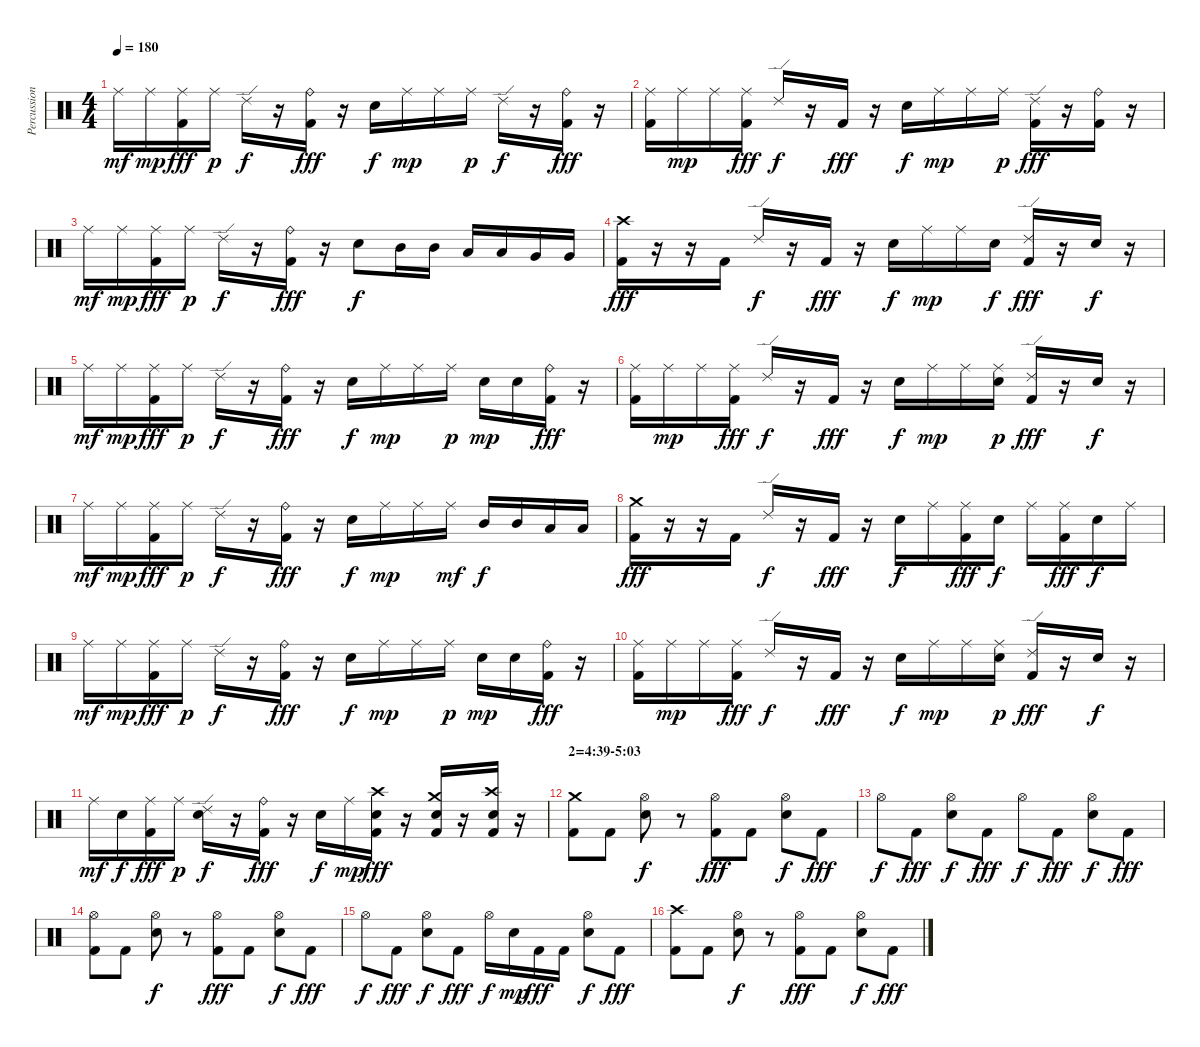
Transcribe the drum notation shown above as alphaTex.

\track ("Percussion" "Percussion") {instrument percussion}
\staff {score}
\articulation defaults
\ts (4 4)
\tempo 180
\clef neutral
\ks c "Ride (middle)".16{dy mf} "Ride (middle)".16{dy mp}
("Ride (middle)" "Kick (hit) 2").16{dy fff} "Ride (middle)".16{dy p} "Ride (edge) 2".16{dy f} r.16 ("Ride (bell)" "Kick (hit) 2").16{dy fff} r.16 "Electric Snare (hit)".16{dy f} "Ride (middle)".16{dy mp} "Ride (middle)".16 "Ride (middle)".16{dy p} "Ride (edge) 2".16{dy f} r.16 ("Ride (bell)" "Kick (hit) 2").16{dy fff} r.16 |
("Ride (middle)" "Kick (hit) 2").16 "Ride (middle)".16{dy mp} "Ride (middle)".16 ("Ride (middle)" "Kick (hit) 2").16{dy fff} "Ride (edge) 2".16{dy f} r.16 "Kick (hit) 2".16{dy fff} r.16 "Electric Snare (hit)".16{dy f} "Ride (middle)".16{dy mp} "Ride (middle)".16 "Ride (middle)".16{dy p} ("Ride (edge) 2" "Kick (hit) 2").16{dy fff} r.16 ("Ride (bell)" "Kick (hit) 2").16 r.16 |
"Ride (middle)".16{dy mf} "Ride (middle)".16{dy mp} ("Ride (middle)" "Kick (hit) 2").16{dy fff} "Ride (middle)".16{dy p} "Ride (edge) 2".16{dy f} r.16 ("Ride (bell)" "Kick (hit) 2").16{dy fff} r.16 "Electric Snare (hit)".8{dy f} "Mid Tom (hit)".16 "Mid Tom (hit)".16 "Low Tom (hit)".16 "Low Tom (hit)".16 "Very Low Tom (hit)".16 "Very Low Tom (hit)".16 |
("Crash high (hit)" "Kick (hit) 2").16{dy fff} r.16 r.16 "Kick (hit) 2".16 "Ride (edge) 2".16{dy f} r.16 "Kick (hit) 2".16{dy fff} r.16 "Electric Snare (hit)".16{dy f} "Ride (middle)".16{dy mp} "Ride (middle)".16 "Electric Snare (hit)".16{dy f} ("Ride (edge) 2" "Kick (hit) 2").16{dy fff} r.16 "Electric Snare (hit)".16{dy f} r.16 |
"Ride (middle)".16{dy mf} "Ride (middle)".16{dy mp} ("Ride (middle)" "Kick (hit) 2").16{dy fff} "Ride (middle)".16{dy p} "Ride (edge) 2".16{dy f} r.16 ("Ride (bell)" "Kick (hit) 2").16{dy fff} r.16 "Electric Snare (hit)".16{dy f} "Ride (middle)".16{dy mp} "Ride (middle)".16 "Ride (middle)".16{dy p} "Electric Snare (hit)".16{dy mp} "Electric Snare (hit)".16 ("Ride (bell)" "Kick (hit) 2").16{dy fff} r.16 |
("Ride (middle)" "Kick (hit) 2").16 "Ride (middle)".16{dy mp} "Ride (middle)".16 ("Ride (middle)" "Kick (hit) 2").16{dy fff} "Ride (edge) 2".16{dy f} r.16 "Kick (hit) 2".16{dy fff} r.16 "Electric Snare (hit)".16{dy f} "Ride (middle)".16{dy mp} "Ride (middle)".16 ("Ride (middle)" "Electric Snare (hit)").16{dy p} ("Ride (edge) 2" "Kick (hit) 2").16{dy fff} r.16 "Electric Snare (hit)".16{dy f} r.16 |
"Ride (middle)".16{dy mf} "Ride (middle)".16{dy mp} ("Ride (middle)" "Kick (hit) 2").16{dy fff} "Ride (middle)".16{dy p} "Ride (edge) 2".16{dy f} r.16 ("Ride (bell)" "Kick (hit) 2").16{dy fff} r.16 "Electric Snare (hit)".16{dy f} "Ride (middle)".16{dy mp} "Ride (middle)".16 "Ride (middle)".16{dy mf} "Mid Tom (hit)".16{dy f} "Mid Tom (hit)".16 "Low Tom (hit)".16 "Low Tom (hit)".16 |
("Crash medium (hit)" "Kick (hit) 2").16{dy fff} r.16 r.16 "Kick (hit) 2".16 "Ride (edge) 2".16{dy f} r.16 "Kick (hit) 2".16{dy fff} r.16 "Electric Snare (hit)".16{dy f} "Ride (middle)".16 ("Ride (middle)" "Kick (hit) 2").16{dy fff} "Electric Snare (hit)".16{dy f} "Ride (middle)".16 ("Ride (middle)" "Kick (hit) 2").16{dy fff} "Electric Snare (hit)".16{dy f} "Ride (middle)".16 |
"Ride (middle)".16{dy mf} "Ride (middle)".16{dy mp} ("Ride (middle)" "Kick (hit) 2").16{dy fff} "Ride (middle)".16{dy p} "Ride (edge) 2".16{dy f} r.16 ("Ride (bell)" "Kick (hit) 2").16{dy fff} r.16 "Electric Snare (hit)".16{dy f} "Ride (middle)".16{dy mp} "Ride (middle)".16 "Ride (middle)".16{dy p} "Electric Snare (hit)".16{dy mp} "Electric Snare (hit)".16 ("Ride (bell)" "Kick (hit) 2").16{dy fff} r.16 |
("Ride (middle)" "Kick (hit) 2").16 "Ride (middle)".16{dy mp} "Ride (middle)".16 ("Ride (middle)" "Kick (hit) 2").16{dy fff} "Ride (edge) 2".16{dy f} r.16 "Kick (hit) 2".16{dy fff} r.16 "Electric Snare (hit)".16{dy f} "Ride (middle)".16{dy mp} "Ride (middle)".16 ("Ride (middle)" "Electric Snare (hit)").16{dy p} ("Ride (edge) 2" "Kick (hit) 2").16{dy fff} r.16 "Electric Snare (hit)".16{dy f} r.16 |
"Ride (middle)".16{dy mf} "Electric Snare (hit)".16{dy f} ("Ride (middle)" "Kick (hit) 2").16{dy fff} "Ride (middle)".16{dy p} ("Ride (edge) 2" "Electric Snare (hit)").16{dy f} r.16 ("Ride (bell)" "Kick (hit) 2").16{dy fff} r.16 "Electric Snare (hit)".16{dy f} "Ride (middle)".16{dy mp} ("Crash high (hit)" "Snare (hit) 2" "Kick (hit) 2").16{dy fff} r.16 ("Crash medium (hit)" "Snare (hit) 2" "Kick (hit) 2").16 r.16 ("Crash high (hit)" "Snare (hit) 2" "Kick (hit) 2").16 r.16 |
\section ("" "2=4:39-5:03")
("Crash medium (hit)" "Kick (hit) 2").8 "Kick (hit) 2".8 ("Hi-Hat (open)" "Snare (hit) 2").8{dy f} r.8 ("Hi-Hat (open)" "Kick (hit) 2").8{dy fff} "Kick (hit) 2".8 ("Hi-Hat (open)" "Snare (hit) 2").8{dy f} "Kick (hit) 2".8{dy fff} |
"Hi-Hat (open)".8{dy f} "Kick (hit) 2".8{dy fff} ("Hi-Hat (open)" "Snare (hit) 2").8{dy f} "Kick (hit) 2".8{dy fff} "Hi-Hat (open)".8{dy f} "Kick (hit) 2".8{dy fff} ("Hi-Hat (open)" "Snare (hit) 2").8{dy f} "Kick (hit) 2".8{dy fff} |
("Hi-Hat (open)" "Kick (hit) 2").8 "Kick (hit) 2".8 ("Hi-Hat (open)" "Snare (hit) 2").8{dy f} r.8 ("Hi-Hat (open)" "Kick (hit) 2").8{dy fff} "Kick (hit) 2".8 ("Hi-Hat (open)" "Snare (hit) 2").8{dy f} "Kick (hit) 2".8{dy fff} |
"Hi-Hat (open)".8{dy f} "Kick (hit) 2".8{dy fff} ("Hi-Hat (open)" "Snare (hit) 2").8{dy f} "Kick (hit) 2".8{dy fff} "Hi-Hat (open)".16{dy f} "Snare (hit) 2".16{dy mp} "Kick (hit) 2".16{dy fff} "Kick (hit) 2".16 ("Hi-Hat (open)" "Snare (hit) 2").8{dy f} "Kick (hit) 2".8{dy fff} |
("Crash high (hit)" "Kick (hit) 2").8 "Kick (hit) 2".8 ("Hi-Hat (open)" "Snare (hit) 2").8{dy f} r.8 ("Hi-Hat (open)" "Kick (hit) 2").8{dy fff} "Kick (hit) 2".8 ("Hi-Hat (open)" "Snare (hit) 2").8{dy f} "Kick (hit) 2".8{dy fff}
